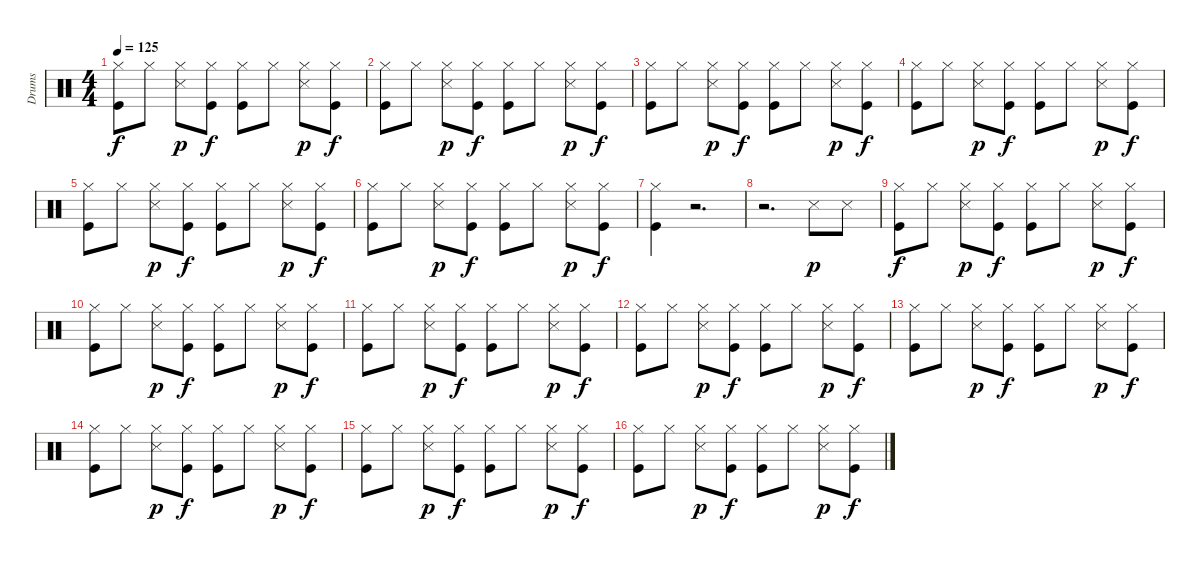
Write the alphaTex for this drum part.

\track ("Drums" "Drums") {instrument percussion}
\staff {score}
\articulation defaults
\ts (4 4)
\tempo 125
\clef neutral
\ks c
("Kick (hit)" "Hi-Hat (closed)").8{dy f} "Hi-Hat (closed)".8 ("Hi-Hat (closed)" "Snare (side stick) 3").8{dy p} ("Hi-Hat (closed)" "Kick (hit)").8{dy f} ("Hi-Hat (closed)" "Kick (hit)").8 "Hi-Hat (closed)".8 ("Hi-Hat (closed)" "Snare (side stick) 3").8{dy p} ("Hi-Hat (closed)" "Kick (hit)").8{dy f} |
("Kick (hit)" "Hi-Hat (closed)").8 "Hi-Hat (closed)".8 ("Hi-Hat (closed)" "Snare (side stick) 3").8{dy p} ("Hi-Hat (closed)" "Kick (hit)").8{dy f} ("Hi-Hat (closed)" "Kick (hit)").8 "Hi-Hat (closed)".8 ("Hi-Hat (closed)" "Snare (side stick) 3").8{dy p} ("Hi-Hat (closed)" "Kick (hit)").8{dy f} |
("Kick (hit)" "Hi-Hat (closed)").8 "Hi-Hat (closed)".8 ("Hi-Hat (closed)" "Snare (side stick) 3").8{dy p} ("Hi-Hat (closed)" "Kick (hit)").8{dy f} ("Hi-Hat (closed)" "Kick (hit)").8 "Hi-Hat (closed)".8 ("Hi-Hat (closed)" "Snare (side stick) 3").8{dy p} ("Hi-Hat (closed)" "Kick (hit)").8{dy f} |
("Kick (hit)" "Hi-Hat (closed)").8 "Hi-Hat (closed)".8 ("Hi-Hat (closed)" "Snare (side stick) 3").8{dy p} ("Hi-Hat (closed)" "Kick (hit)").8{dy f} ("Hi-Hat (closed)" "Kick (hit)").8 "Hi-Hat (closed)".8 ("Hi-Hat (closed)" "Snare (side stick) 3").8{dy p} ("Hi-Hat (closed)" "Kick (hit)").8{dy f} |
("Kick (hit)" "Hi-Hat (closed)").8 "Hi-Hat (closed)".8 ("Hi-Hat (closed)" "Snare (side stick) 3").8{dy p} ("Hi-Hat (closed)" "Kick (hit)").8{dy f} ("Hi-Hat (closed)" "Kick (hit)").8 "Hi-Hat (closed)".8 ("Hi-Hat (closed)" "Snare (side stick) 3").8{dy p} ("Hi-Hat (closed)" "Kick (hit)").8{dy f} |
("Kick (hit)" "Hi-Hat (closed)").8 "Hi-Hat (closed)".8 ("Hi-Hat (closed)" "Snare (side stick) 3").8{dy p} ("Hi-Hat (closed)" "Kick (hit)").8{dy f} ("Hi-Hat (closed)" "Kick (hit)").8 "Hi-Hat (closed)".8 ("Hi-Hat (closed)" "Snare (side stick) 3").8{dy p} ("Hi-Hat (closed)" "Kick (hit)").8{dy f} |
("Hi-Hat (closed)" "Kick (hit)").4 r.2{d} |
r.2{d} "Snare (side stick) 3".8{dy p} "Snare (side stick) 3".8 |
("Kick (hit)" "Hi-Hat (closed)").8{dy f} "Hi-Hat (closed)".8 ("Hi-Hat (closed)" "Snare (side stick) 3").8{dy p} ("Hi-Hat (closed)" "Kick (hit)").8{dy f} ("Hi-Hat (closed)" "Kick (hit)").8 "Hi-Hat (closed)".8 ("Hi-Hat (closed)" "Snare (side stick) 3").8{dy p} ("Hi-Hat (closed)" "Kick (hit)").8{dy f} |
("Kick (hit)" "Hi-Hat (closed)").8 "Hi-Hat (closed)".8 ("Hi-Hat (closed)" "Snare (side stick) 3").8{dy p} ("Hi-Hat (closed)" "Kick (hit)").8{dy f} ("Hi-Hat (closed)" "Kick (hit)").8 "Hi-Hat (closed)".8 ("Hi-Hat (closed)" "Snare (side stick) 3").8{dy p} ("Hi-Hat (closed)" "Kick (hit)").8{dy f} |
("Kick (hit)" "Hi-Hat (closed)").8 "Hi-Hat (closed)".8 ("Hi-Hat (closed)" "Snare (side stick) 3").8{dy p} ("Hi-Hat (closed)" "Kick (hit)").8{dy f} ("Hi-Hat (closed)" "Kick (hit)").8 "Hi-Hat (closed)".8 ("Hi-Hat (closed)" "Snare (side stick) 3").8{dy p} ("Hi-Hat (closed)" "Kick (hit)").8{dy f} |
("Kick (hit)" "Hi-Hat (closed)").8 "Hi-Hat (closed)".8 ("Hi-Hat (closed)" "Snare (side stick) 3").8{dy p} ("Hi-Hat (closed)" "Kick (hit)").8{dy f} ("Hi-Hat (closed)" "Kick (hit)").8 "Hi-Hat (closed)".8 ("Hi-Hat (closed)" "Snare (side stick) 3").8{dy p} ("Hi-Hat (closed)" "Kick (hit)").8{dy f} |
("Kick (hit)" "Hi-Hat (closed)").8 "Hi-Hat (closed)".8 ("Hi-Hat (closed)" "Snare (side stick) 3").8{dy p} ("Hi-Hat (closed)" "Kick (hit)").8{dy f} ("Hi-Hat (closed)" "Kick (hit)").8 "Hi-Hat (closed)".8 ("Hi-Hat (closed)" "Snare (side stick) 3").8{dy p} ("Hi-Hat (closed)" "Kick (hit)").8{dy f} |
("Kick (hit)" "Hi-Hat (closed)").8 "Hi-Hat (closed)".8 ("Hi-Hat (closed)" "Snare (side stick) 3").8{dy p} ("Hi-Hat (closed)" "Kick (hit)").8{dy f} ("Hi-Hat (closed)" "Kick (hit)").8 "Hi-Hat (closed)".8 ("Hi-Hat (closed)" "Snare (side stick) 3").8{dy p} ("Hi-Hat (closed)" "Kick (hit)").8{dy f} |
("Kick (hit)" "Hi-Hat (closed)").8 "Hi-Hat (closed)".8 ("Hi-Hat (closed)" "Snare (side stick) 3").8{dy p} ("Hi-Hat (closed)" "Kick (hit)").8{dy f} ("Hi-Hat (closed)" "Kick (hit)").8 "Hi-Hat (closed)".8 ("Hi-Hat (closed)" "Snare (side stick) 3").8{dy p} ("Hi-Hat (closed)" "Kick (hit)").8{dy f} |
("Kick (hit)" "Hi-Hat (closed)").8 "Hi-Hat (closed)".8 ("Hi-Hat (closed)" "Snare (side stick) 3").8{dy p} ("Hi-Hat (closed)" "Kick (hit)").8{dy f} ("Hi-Hat (closed)" "Kick (hit)").8 "Hi-Hat (closed)".8 ("Hi-Hat (closed)" "Snare (side stick) 3").8{dy p} ("Hi-Hat (closed)" "Kick (hit)").8{dy f}
